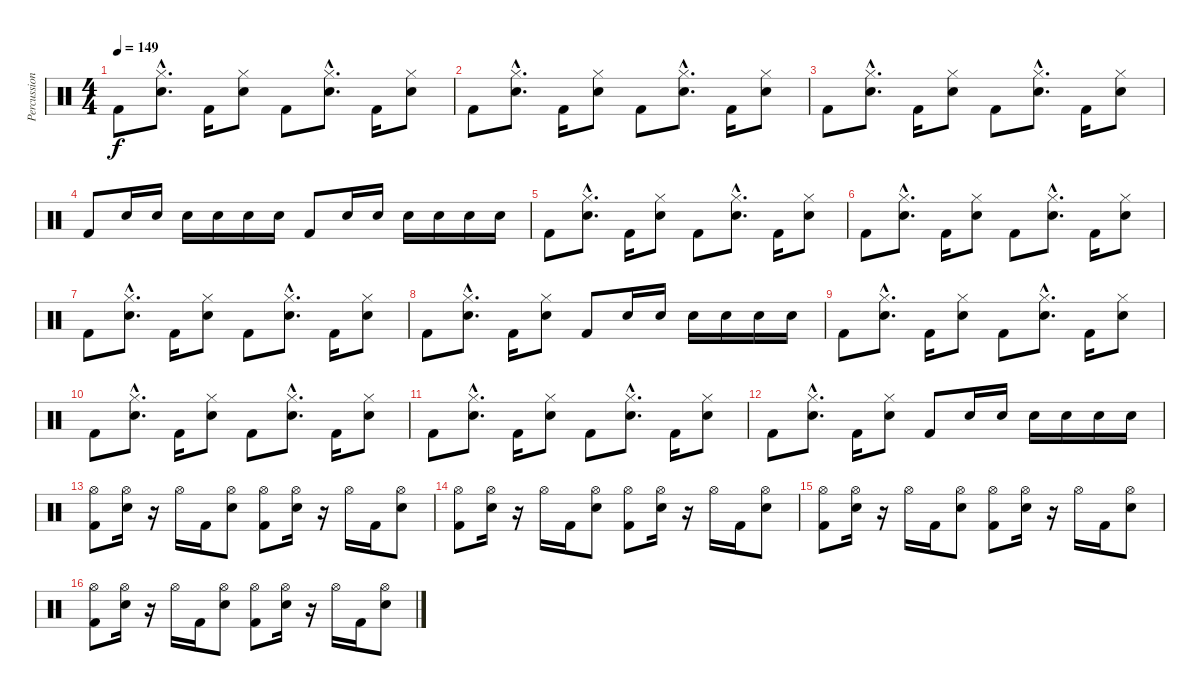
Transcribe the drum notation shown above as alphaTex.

\track ("Percussion" "Percussion") {instrument percussion}
\staff {score}
\articulation defaults
\ts (4 4)
\tempo 149
\clef neutral
\ks c "Kick (hit) 2".8{dy f}
("Snare (hit) 2"{hac} "Hi-Hat (closed)"{hac}).8{d} "Kick (hit) 2".16 ("Snare (hit) 2" "Hi-Hat (closed)").8 "Kick (hit) 2".8 ("Snare (hit) 2"{hac} "Hi-Hat (closed)"{hac}).8{d} "Kick (hit) 2".16 ("Snare (hit) 2" "Hi-Hat (closed)").8 |
"Kick (hit) 2".8 ("Snare (hit) 2"{hac} "Hi-Hat (closed)"{hac}).8{d} "Kick (hit) 2".16 ("Snare (hit) 2" "Hi-Hat (closed)").8 "Kick (hit) 2".8 ("Snare (hit) 2"{hac} "Hi-Hat (closed)"{hac}).8{d} "Kick (hit) 2".16 ("Snare (hit) 2" "Hi-Hat (closed)").8 |
"Kick (hit) 2".8 ("Snare (hit) 2"{hac} "Hi-Hat (closed)"{hac}).8{d} "Kick (hit) 2".16 ("Snare (hit) 2" "Hi-Hat (closed)").8 "Kick (hit) 2".8 ("Snare (hit) 2"{hac} "Hi-Hat (closed)"{hac}).8{d} "Kick (hit) 2".16 ("Snare (hit) 2" "Hi-Hat (closed)").8 |
"Kick (hit) 2".8 "Snare (hit) 2".16 "Snare (hit) 2".16 "Snare (hit) 2".16 "Snare (hit) 2".16 "Snare (hit) 2".16 "Snare (hit) 2".16 "Kick (hit) 2".8 "Snare (hit) 2".16 "Snare (hit) 2".16 "Snare (hit) 2".16 "Snare (hit) 2".16 "Snare (hit) 2".16 "Snare (hit) 2".16 |
"Kick (hit) 2".8 ("Snare (hit) 2"{hac} "Hi-Hat (closed)"{hac}).8{d} "Kick (hit) 2".16 ("Snare (hit) 2" "Hi-Hat (closed)").8 "Kick (hit) 2".8 ("Snare (hit) 2"{hac} "Hi-Hat (closed)"{hac}).8{d} "Kick (hit) 2".16 ("Snare (hit) 2" "Hi-Hat (closed)").8 |
"Kick (hit) 2".8 ("Snare (hit) 2"{hac} "Hi-Hat (closed)"{hac}).8{d} "Kick (hit) 2".16 ("Snare (hit) 2" "Hi-Hat (closed)").8 "Kick (hit) 2".8 ("Snare (hit) 2"{hac} "Hi-Hat (closed)"{hac}).8{d} "Kick (hit) 2".16 ("Snare (hit) 2" "Hi-Hat (closed)").8 |
"Kick (hit) 2".8 ("Snare (hit) 2"{hac} "Hi-Hat (closed)"{hac}).8{d} "Kick (hit) 2".16 ("Snare (hit) 2" "Hi-Hat (closed)").8 "Kick (hit) 2".8 ("Snare (hit) 2"{hac} "Hi-Hat (closed)"{hac}).8{d} "Kick (hit) 2".16 ("Snare (hit) 2" "Hi-Hat (closed)").8 |
"Kick (hit) 2".8 ("Snare (hit) 2"{hac} "Hi-Hat (closed)"{hac}).8{d} "Kick (hit) 2".16 ("Snare (hit) 2" "Hi-Hat (closed)").8 "Kick (hit) 2".8 "Snare (hit) 2".16 "Snare (hit) 2".16 "Snare (hit) 2".16 "Snare (hit) 2".16 "Snare (hit) 2".16 "Snare (hit) 2".16 |
"Kick (hit) 2".8 ("Snare (hit) 2"{hac} "Hi-Hat (closed)"{hac}).8{d} "Kick (hit) 2".16 ("Snare (hit) 2" "Hi-Hat (closed)").8 "Kick (hit) 2".8 ("Snare (hit) 2"{hac} "Hi-Hat (closed)"{hac}).8{d} "Kick (hit) 2".16 ("Snare (hit) 2" "Hi-Hat (closed)").8 |
"Kick (hit) 2".8 ("Snare (hit) 2"{hac} "Hi-Hat (closed)"{hac}).8{d} "Kick (hit) 2".16 ("Snare (hit) 2" "Hi-Hat (closed)").8 "Kick (hit) 2".8 ("Snare (hit) 2"{hac} "Hi-Hat (closed)"{hac}).8{d} "Kick (hit) 2".16 ("Snare (hit) 2" "Hi-Hat (closed)").8 |
"Kick (hit) 2".8 ("Snare (hit) 2"{hac} "Hi-Hat (closed)"{hac}).8{d} "Kick (hit) 2".16 ("Snare (hit) 2" "Hi-Hat (closed)").8 "Kick (hit) 2".8 ("Snare (hit) 2"{hac} "Hi-Hat (closed)"{hac}).8{d} "Kick (hit) 2".16 ("Snare (hit) 2" "Hi-Hat (closed)").8 |
"Kick (hit) 2".8 ("Snare (hit) 2"{hac} "Hi-Hat (closed)"{hac}).8{d} "Kick (hit) 2".16 ("Snare (hit) 2" "Hi-Hat (closed)").8 "Kick (hit) 2".8 "Snare (hit) 2".16 "Snare (hit) 2".16 "Snare (hit) 2".16 "Snare (hit) 2".16 "Snare (hit) 2".16 "Snare (hit) 2".16 |
("Kick (hit) 2" "Hi-Hat (open)").8 ("Snare (hit) 2" "Hi-Hat (open)").16 r.16 "Hi-Hat (open)".16 "Kick (hit) 2".16 ("Snare (hit) 2" "Hi-Hat (open)").8 ("Kick (hit) 2" "Hi-Hat (open)").8 ("Snare (hit) 2" "Hi-Hat (open)").16 r.16 "Hi-Hat (open)".16 "Kick (hit) 2".16 ("Snare (hit) 2" "Hi-Hat (open)").8 |
("Kick (hit) 2" "Hi-Hat (open)").8 ("Snare (hit) 2" "Hi-Hat (open)").16 r.16 "Hi-Hat (open)".16 "Kick (hit) 2".16 ("Snare (hit) 2" "Hi-Hat (open)").8 ("Kick (hit) 2" "Hi-Hat (open)").8 ("Snare (hit) 2" "Hi-Hat (open)").16 r.16 "Hi-Hat (open)".16 "Kick (hit) 2".16 ("Snare (hit) 2" "Hi-Hat (open)").8 |
("Kick (hit) 2" "Hi-Hat (open)").8 ("Snare (hit) 2" "Hi-Hat (open)").16 r.16 "Hi-Hat (open)".16 "Kick (hit) 2".16 ("Snare (hit) 2" "Hi-Hat (open)").8 ("Kick (hit) 2" "Hi-Hat (open)").8 ("Snare (hit) 2" "Hi-Hat (open)").16 r.16 "Hi-Hat (open)".16 "Kick (hit) 2".16 ("Snare (hit) 2" "Hi-Hat (open)").8 |
("Kick (hit) 2" "Hi-Hat (open)").8 ("Snare (hit) 2" "Hi-Hat (open)").16 r.16 "Hi-Hat (open)".16 "Kick (hit) 2".16 ("Snare (hit) 2" "Hi-Hat (open)").8 ("Kick (hit) 2" "Hi-Hat (open)").8 ("Snare (hit) 2" "Hi-Hat (open)").16 r.16 "Hi-Hat (open)".16 "Kick (hit) 2".16 ("Snare (hit) 2" "Hi-Hat (open)").8
